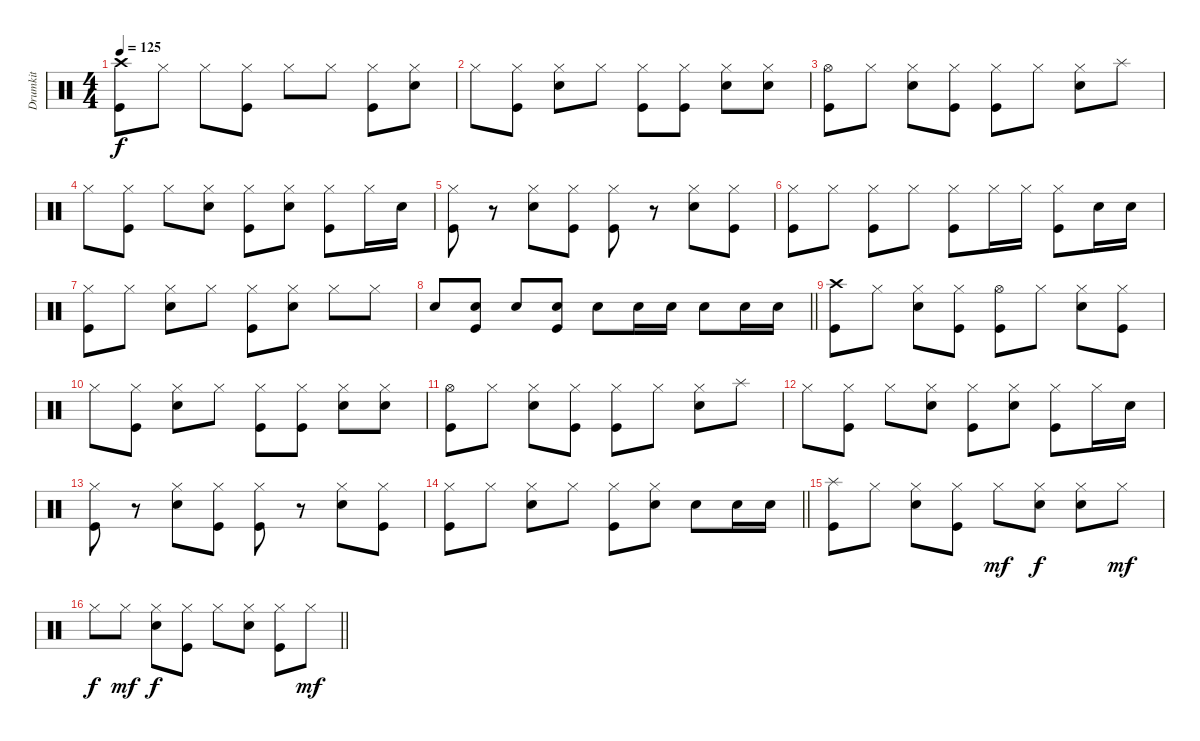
\track ("Drumkit" "Drumkit") {instrument percussion}
\staff {score}
\articulation defaults
\ts (4 4)
\tempo 125
\clef neutral
\ks c
("Kick (hit)" "Crash high (hit)").8{dy f} "Hi-Hat (closed)".8 "Hi-Hat (closed)".8 ("Kick (hit)" "Hi-Hat (closed)").8 "Hi-Hat (closed)".8 "Hi-Hat (closed)".8 ("Kick (hit)" "Hi-Hat (closed)").8 ("Hi-Hat (closed)" "Snare (hit) 2").8 |
"Hi-Hat (closed)".8 ("Hi-Hat (closed)" "Kick (hit)").8 ("Snare (hit) 2" "Hi-Hat (closed)").8 "Hi-Hat (closed)".8 ("Kick (hit)" "Hi-Hat (closed)").8 ("Kick (hit)" "Hi-Hat (closed)").8 ("Snare (hit) 2" "Hi-Hat (closed)").8 ("Snare (hit) 2" "Hi-Hat (closed)").8 |
("Kick (hit)" "Hi-Hat (open)").8 "Hi-Hat (closed)".8 ("Snare (hit) 2" "Hi-Hat (closed)").8 ("Kick (hit)" "Hi-Hat (closed)").8 ("Hi-Hat (closed)" "Kick (hit)").8 "Hi-Hat (closed)".8 ("Snare (hit) 2" "Hi-Hat (closed)").8 "Splash (hit)".8 |
"Hi-Hat (closed)".8 ("Hi-Hat (closed)" "Kick (hit)").8 "Hi-Hat (closed)".8 ("Hi-Hat (closed)" "Snare (hit) 2").8 ("Kick (hit)" "Hi-Hat (closed)").8 ("Hi-Hat (closed)" "Snare (hit) 2").8 ("Kick (hit)" "Hi-Hat (closed)").8 "Hi-Hat (closed)".16 "Snare (hit) 2".16 |
("Kick (hit)" "Hi-Hat (closed)").8 r.8 ("Snare (hit) 2" "Hi-Hat (closed)").8 ("Hi-Hat (closed)" "Kick (hit)").8 ("Kick (hit)" "Hi-Hat (closed)").8 r.8 ("Snare (hit) 2" "Hi-Hat (closed)").8 ("Hi-Hat (closed)" "Kick (hit)").8 |
("Kick (hit)" "Hi-Hat (closed)").8 "Hi-Hat (closed)".8 ("Kick (hit)" "Hi-Hat (closed)").8 "Hi-Hat (closed)".8 ("Kick (hit)" "Hi-Hat (closed)").8 "Hi-Hat (closed)".16 "Hi-Hat (closed)".16 ("Kick (hit)" "Hi-Hat (closed)").8 "Snare (hit) 2".16 "Snare (hit) 2".16 |
("Hi-Hat (closed)" "Kick (hit)").8 "Hi-Hat (closed)".8 ("Hi-Hat (closed)" "Snare (hit) 2").8 "Hi-Hat (closed)".8 ("Hi-Hat (closed)" "Kick (hit)").8 ("Hi-Hat (closed)" "Snare (hit) 2").8 "Hi-Hat (closed)".8 "Hi-Hat (closed)".8 |
\barLineRight lightlight "Snare (hit) 2".8
("Snare (hit) 2" "Kick (hit)").8 "Snare (hit) 2".8 ("Snare (hit) 2" "Kick (hit)").8 "Snare (hit) 2".8 "Snare (hit) 2".16 "Snare (hit) 2".16 "Snare (hit) 2".8 "Snare (hit) 2".16 "Snare (hit) 2".16 |
("Kick (hit)" "Crash high (hit)").8 "Hi-Hat (closed)".8 ("Hi-Hat (closed)" "Snare (hit) 2").8 ("Kick (hit)" "Hi-Hat (closed)").8 ("Kick (hit)" "Hi-Hat (open)").8 "Hi-Hat (closed)".8 ("Hi-Hat (closed)" "Snare (hit) 2").8 ("Kick (hit)" "Hi-Hat (closed)").8 |
"Hi-Hat (closed)".8 ("Hi-Hat (closed)" "Kick (hit)").8 ("Snare (hit) 2" "Hi-Hat (closed)").8 "Hi-Hat (closed)".8 ("Kick (hit)" "Hi-Hat (closed)").8 ("Kick (hit)" "Hi-Hat (closed)").8 ("Snare (hit) 2" "Hi-Hat (closed)").8 ("Snare (hit) 2" "Hi-Hat (closed)").8 |
("Kick (hit)" "Hi-Hat (open)").8 "Hi-Hat (closed)".8 ("Snare (hit) 2" "Hi-Hat (closed)").8 ("Kick (hit)" "Hi-Hat (closed)").8 ("Hi-Hat (closed)" "Kick (hit)").8 "Hi-Hat (closed)".8 ("Snare (hit) 2" "Hi-Hat (closed)").8 "Splash (hit)".8 |
"Hi-Hat (closed)".8 ("Hi-Hat (closed)" "Kick (hit)").8 "Hi-Hat (closed)".8 ("Hi-Hat (closed)" "Snare (hit) 2").8 ("Kick (hit)" "Hi-Hat (closed)").8 ("Hi-Hat (closed)" "Snare (hit) 2").8 ("Kick (hit)" "Hi-Hat (closed)").8 "Hi-Hat (closed)".16 "Snare (hit) 2".16 |
("Kick (hit)" "Hi-Hat (closed)").8 r.8 ("Snare (hit) 2" "Hi-Hat (closed)").8 ("Hi-Hat (closed)" "Kick (hit)").8 ("Kick (hit)" "Hi-Hat (closed)").8 r.8 ("Snare (hit) 2" "Hi-Hat (closed)").8 ("Hi-Hat (closed)" "Kick (hit)").8 |
\barLineRight lightlight
("Hi-Hat (closed)" "Kick (hit)").8 "Hi-Hat (closed)".8 ("Hi-Hat (closed)" "Snare (hit) 2").8 "Hi-Hat (closed)".8 ("Hi-Hat (closed)" "Kick (hit)").8 ("Hi-Hat (closed)" "Snare (hit) 2").8 "Snare (hit) 2".8 "Snare (hit) 2".16 "Snare (hit) 2".16 |
("Kick (hit)" "Splash (hit)").8 "Hi-Hat (closed)".8 ("Snare (hit) 2" "Hi-Hat (closed)").8 ("Kick (hit)" "Hi-Hat (closed)").8 "Hi-Hat (closed)".8{dy mf} ("Snare (hit) 2" "Hi-Hat (closed)").8{dy f} ("Snare (hit) 2" "Hi-Hat (closed)").8 "Hi-Hat (closed)".8{dy mf} |
\barLineRight lightlight "Hi-Hat (closed)".8{dy f} "Hi-Hat (closed)".8{dy mf}
("Snare (hit) 2" "Hi-Hat (closed)").8{dy f} ("Kick (hit)" "Hi-Hat (closed)").8 "Hi-Hat (closed)".8 ("Snare (hit) 2" "Hi-Hat (closed)").8 ("Kick (hit)" "Hi-Hat (closed)").8 "Hi-Hat (closed)".8{dy mf}
